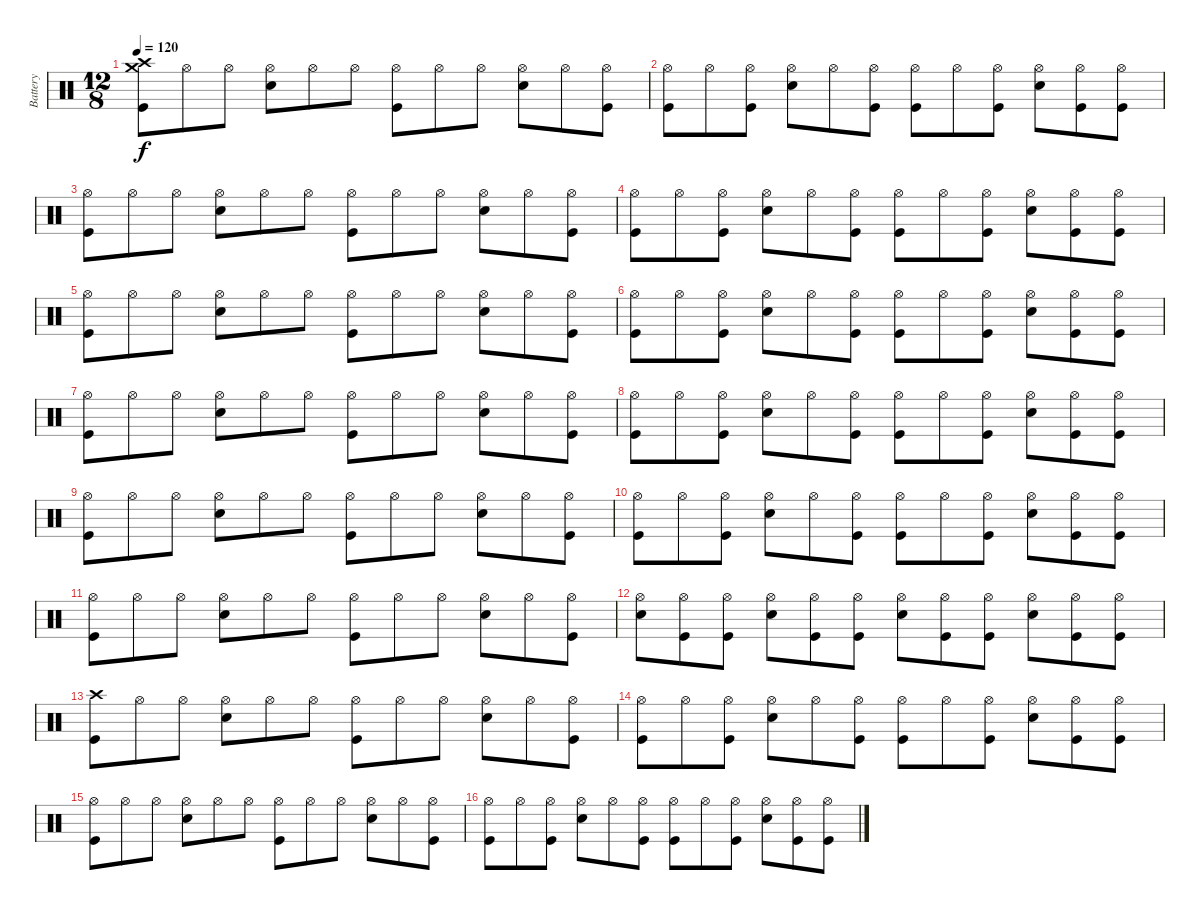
\track ("Battery" "Battery") {instrument percussion}
\staff {score}
\articulation defaults
\ts (12 8)
\tempo 120
\clef neutral
\ks c
("Crash high (hit)" "Crash medium (hit)" "Kick (hit)").8{dy f} "Hi-Hat (open)".8 "Hi-Hat (open)".8 ("Hi-Hat (open)" "Electric Snare (hit)").8 "Hi-Hat (open)".8 "Hi-Hat (open)".8 ("Hi-Hat (open)" "Kick (hit)").8 "Hi-Hat (open)".8 "Hi-Hat (open)".8 ("Hi-Hat (open)" "Electric Snare (hit)").8 "Hi-Hat (open)".8 ("Hi-Hat (open)" "Kick (hit)").8 |
("Hi-Hat (open)" "Kick (hit)").8 "Hi-Hat (open)".8 ("Hi-Hat (open)" "Kick (hit)").8 ("Hi-Hat (open)" "Electric Snare (hit)").8 "Hi-Hat (open)".8 ("Hi-Hat (open)" "Kick (hit)").8 ("Hi-Hat (open)" "Kick (hit)").8 "Hi-Hat (open)".8 ("Hi-Hat (open)" "Kick (hit)").8 ("Hi-Hat (open)" "Electric Snare (hit)").8 ("Hi-Hat (open)" "Kick (hit)").8 ("Hi-Hat (open)" "Kick (hit)").8 |
("Hi-Hat (open)" "Kick (hit)").8 "Hi-Hat (open)".8 "Hi-Hat (open)".8 ("Hi-Hat (open)" "Electric Snare (hit)").8 "Hi-Hat (open)".8 "Hi-Hat (open)".8 ("Hi-Hat (open)" "Kick (hit)").8 "Hi-Hat (open)".8 "Hi-Hat (open)".8 ("Hi-Hat (open)" "Electric Snare (hit)").8 "Hi-Hat (open)".8 ("Hi-Hat (open)" "Kick (hit)").8 |
("Hi-Hat (open)" "Kick (hit)").8 "Hi-Hat (open)".8 ("Hi-Hat (open)" "Kick (hit)").8 ("Hi-Hat (open)" "Electric Snare (hit)").8 "Hi-Hat (open)".8 ("Hi-Hat (open)" "Kick (hit)").8 ("Hi-Hat (open)" "Kick (hit)").8 "Hi-Hat (open)".8 ("Hi-Hat (open)" "Kick (hit)").8 ("Hi-Hat (open)" "Electric Snare (hit)").8 ("Hi-Hat (open)" "Kick (hit)").8 ("Hi-Hat (open)" "Kick (hit)").8 |
("Hi-Hat (open)" "Kick (hit)").8 "Hi-Hat (open)".8 "Hi-Hat (open)".8 ("Hi-Hat (open)" "Electric Snare (hit)").8 "Hi-Hat (open)".8 "Hi-Hat (open)".8 ("Hi-Hat (open)" "Kick (hit)").8 "Hi-Hat (open)".8 "Hi-Hat (open)".8 ("Hi-Hat (open)" "Electric Snare (hit)").8 "Hi-Hat (open)".8 ("Hi-Hat (open)" "Kick (hit)").8 |
("Hi-Hat (open)" "Kick (hit)").8 "Hi-Hat (open)".8 ("Hi-Hat (open)" "Kick (hit)").8 ("Hi-Hat (open)" "Electric Snare (hit)").8 "Hi-Hat (open)".8 ("Hi-Hat (open)" "Kick (hit)").8 ("Hi-Hat (open)" "Kick (hit)").8 "Hi-Hat (open)".8 ("Hi-Hat (open)" "Kick (hit)").8 ("Hi-Hat (open)" "Electric Snare (hit)").8 ("Hi-Hat (open)" "Kick (hit)").8 ("Hi-Hat (open)" "Kick (hit)").8 |
("Hi-Hat (open)" "Kick (hit)").8 "Hi-Hat (open)".8 "Hi-Hat (open)".8 ("Hi-Hat (open)" "Electric Snare (hit)").8 "Hi-Hat (open)".8 "Hi-Hat (open)".8 ("Hi-Hat (open)" "Kick (hit)").8 "Hi-Hat (open)".8 "Hi-Hat (open)".8 ("Hi-Hat (open)" "Electric Snare (hit)").8 "Hi-Hat (open)".8 ("Hi-Hat (open)" "Kick (hit)").8 |
("Hi-Hat (open)" "Kick (hit)").8 "Hi-Hat (open)".8 ("Hi-Hat (open)" "Kick (hit)").8 ("Hi-Hat (open)" "Electric Snare (hit)").8 "Hi-Hat (open)".8 ("Hi-Hat (open)" "Kick (hit)").8 ("Hi-Hat (open)" "Kick (hit)").8 "Hi-Hat (open)".8 ("Hi-Hat (open)" "Kick (hit)").8 ("Hi-Hat (open)" "Electric Snare (hit)").8 ("Hi-Hat (open)" "Kick (hit)").8 ("Hi-Hat (open)" "Kick (hit)").8 |
("Hi-Hat (open)" "Kick (hit)").8 "Hi-Hat (open)".8 "Hi-Hat (open)".8 ("Hi-Hat (open)" "Electric Snare (hit)").8 "Hi-Hat (open)".8 "Hi-Hat (open)".8 ("Hi-Hat (open)" "Kick (hit)").8 "Hi-Hat (open)".8 "Hi-Hat (open)".8 ("Hi-Hat (open)" "Electric Snare (hit)").8 "Hi-Hat (open)".8 ("Hi-Hat (open)" "Kick (hit)").8 |
("Hi-Hat (open)" "Kick (hit)").8 "Hi-Hat (open)".8 ("Hi-Hat (open)" "Kick (hit)").8 ("Hi-Hat (open)" "Electric Snare (hit)").8 "Hi-Hat (open)".8 ("Hi-Hat (open)" "Kick (hit)").8 ("Hi-Hat (open)" "Kick (hit)").8 "Hi-Hat (open)".8 ("Hi-Hat (open)" "Kick (hit)").8 ("Hi-Hat (open)" "Electric Snare (hit)").8 ("Hi-Hat (open)" "Kick (hit)").8 ("Hi-Hat (open)" "Kick (hit)").8 |
("Hi-Hat (open)" "Kick (hit)").8 "Hi-Hat (open)".8 "Hi-Hat (open)".8 ("Hi-Hat (open)" "Electric Snare (hit)").8 "Hi-Hat (open)".8 "Hi-Hat (open)".8 ("Hi-Hat (open)" "Kick (hit)").8 "Hi-Hat (open)".8 "Hi-Hat (open)".8 ("Hi-Hat (open)" "Electric Snare (hit)").8 "Hi-Hat (open)".8 ("Hi-Hat (open)" "Kick (hit)").8 |
("Hi-Hat (open)" "Electric Snare (hit)").8 ("Hi-Hat (open)" "Kick (hit)").8 ("Hi-Hat (open)" "Kick (hit)").8 ("Hi-Hat (open)" "Electric Snare (hit)").8 ("Hi-Hat (open)" "Kick (hit)").8 ("Hi-Hat (open)" "Kick (hit)").8 ("Hi-Hat (open)" "Electric Snare (hit)").8 ("Hi-Hat (open)" "Kick (hit)").8 ("Hi-Hat (open)" "Kick (hit)").8 ("Hi-Hat (open)" "Electric Snare (hit)").8 ("Hi-Hat (open)" "Kick (hit)").8 ("Hi-Hat (open)" "Kick (hit)").8 |
("Crash high (hit)" "Kick (hit)").8 "Hi-Hat (open)".8 "Hi-Hat (open)".8 ("Hi-Hat (open)" "Electric Snare (hit)").8 "Hi-Hat (open)".8 "Hi-Hat (open)".8 ("Hi-Hat (open)" "Kick (hit)").8 "Hi-Hat (open)".8 "Hi-Hat (open)".8 ("Hi-Hat (open)" "Electric Snare (hit)").8 "Hi-Hat (open)".8 ("Hi-Hat (open)" "Kick (hit)").8 |
("Hi-Hat (open)" "Kick (hit)").8 "Hi-Hat (open)".8 ("Hi-Hat (open)" "Kick (hit)").8 ("Hi-Hat (open)" "Electric Snare (hit)").8 "Hi-Hat (open)".8 ("Hi-Hat (open)" "Kick (hit)").8 ("Hi-Hat (open)" "Kick (hit)").8 "Hi-Hat (open)".8 ("Hi-Hat (open)" "Kick (hit)").8 ("Hi-Hat (open)" "Electric Snare (hit)").8 ("Hi-Hat (open)" "Kick (hit)").8 ("Hi-Hat (open)" "Kick (hit)").8 |
("Hi-Hat (open)" "Kick (hit)").8 "Hi-Hat (open)".8 "Hi-Hat (open)".8 ("Hi-Hat (open)" "Electric Snare (hit)").8 "Hi-Hat (open)".8 "Hi-Hat (open)".8 ("Hi-Hat (open)" "Kick (hit)").8 "Hi-Hat (open)".8 "Hi-Hat (open)".8 ("Hi-Hat (open)" "Electric Snare (hit)").8 "Hi-Hat (open)".8 ("Hi-Hat (open)" "Kick (hit)").8 |
("Hi-Hat (open)" "Kick (hit)").8 "Hi-Hat (open)".8 ("Hi-Hat (open)" "Kick (hit)").8 ("Hi-Hat (open)" "Electric Snare (hit)").8 "Hi-Hat (open)".8 ("Hi-Hat (open)" "Kick (hit)").8 ("Hi-Hat (open)" "Kick (hit)").8 "Hi-Hat (open)".8 ("Hi-Hat (open)" "Kick (hit)").8 ("Hi-Hat (open)" "Electric Snare (hit)").8 ("Hi-Hat (open)" "Kick (hit)").8 ("Hi-Hat (open)" "Kick (hit)").8
